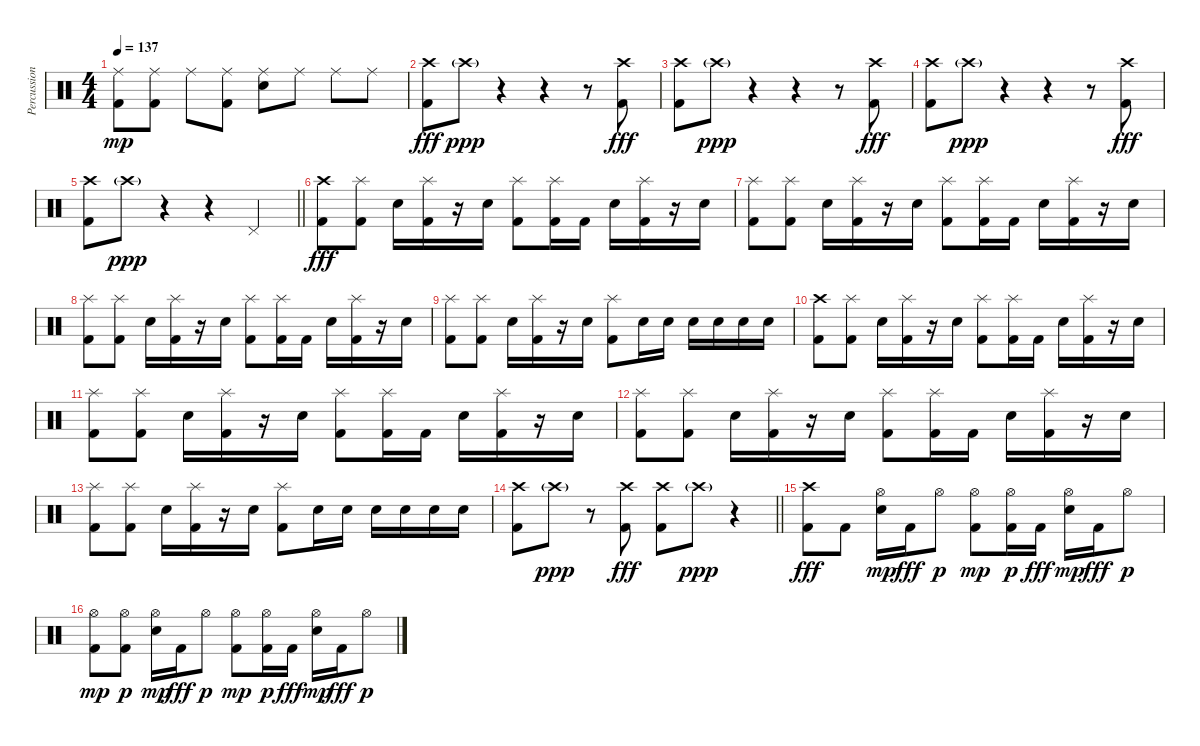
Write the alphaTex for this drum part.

\track ("Percussion" "Percussion") {instrument percussion}
\staff {score}
\articulation defaults
\ts (4 4)
\tempo 137
\clef neutral
\ks c
("Kick (hit) 2" "Ride (middle)").8{dy mp} ("Kick (hit) 2" "Ride (middle)").8 "Ride (middle)".8 ("Kick (hit) 2" "Ride (middle)").8 ("Electric Snare (hit)" "Ride (middle)").8 "Ride (middle)".8 "Ride (middle)".8 "Ride (middle)".8 |
("Kick (hit) 2" "Crash high (hit)").8{dy fff} "Crash high (hit)"{g}.8{dy ppp} r.4 r.4 r.8 ("Kick (hit) 2" "Crash high (hit)").8{dy fff} |
("Kick (hit) 2" "Crash high (hit)").8 "Crash high (hit)"{g}.8{dy ppp} r.4 r.4 r.8 ("Kick (hit) 2" "Crash high (hit)").8{dy fff} |
("Kick (hit) 2" "Crash high (hit)").8 "Crash high (hit)"{g}.8{dy ppp} r.4 r.4 r.8 ("Kick (hit) 2" "Crash high (hit)").8{dy fff} |
\barLineRight lightlight
("Kick (hit) 2" "Crash high (hit)").8 "Crash high (hit)"{g}.8{dy ppp} r.4 r.4 "Pedal Hi-Hat (hit)".4 |
("Kick (hit) 2" "Crash high (hit)").8{dy fff} ("Kick (hit) 2" "Splash (hit)").8 "Electric Snare (hit)".16 ("Kick (hit) 2" "Splash (hit)").16 r.16 "Electric Snare (hit)".16 ("Kick (hit) 2" "Splash (hit)").8 ("Kick (hit) 2" "Splash (hit)").16 "Kick (hit) 2".16 "Electric Snare (hit)".16 ("Kick (hit) 2" "Splash (hit)").16 r.16 "Electric Snare (hit)".16 |
("Kick (hit) 2" "Splash (hit)").8 ("Kick (hit) 2" "Splash (hit)").8 "Electric Snare (hit)".16 ("Kick (hit) 2" "Splash (hit)").16 r.16 "Electric Snare (hit)".16 ("Kick (hit) 2" "Splash (hit)").8 ("Kick (hit) 2" "Splash (hit)").16 "Kick (hit) 2".16 "Electric Snare (hit)".16 ("Kick (hit) 2" "Splash (hit)").16 r.16 "Electric Snare (hit)".16 |
("Kick (hit) 2" "Splash (hit)").8 ("Kick (hit) 2" "Splash (hit)").8 "Electric Snare (hit)".16 ("Kick (hit) 2" "Splash (hit)").16 r.16 "Electric Snare (hit)".16 ("Kick (hit) 2" "Splash (hit)").8 ("Kick (hit) 2" "Splash (hit)").16 "Kick (hit) 2".16 "Electric Snare (hit)".16 ("Kick (hit) 2" "Splash (hit)").16 r.16 "Electric Snare (hit)".16 |
("Kick (hit) 2" "Splash (hit)").8 ("Kick (hit) 2" "Splash (hit)").8 "Electric Snare (hit)".16 ("Kick (hit) 2" "Splash (hit)").16 r.16 "Electric Snare (hit)".16 ("Kick (hit) 2" "Splash (hit)").8 "Electric Snare (hit)".16 "Electric Snare (hit)".16 "Electric Snare (hit)".16 "Electric Snare (hit)".16 "Electric Snare (hit)".16 "Electric Snare (hit)".16 |
("Kick (hit) 2" "Crash high (hit)").8 ("Kick (hit) 2" "Splash (hit)").8 "Electric Snare (hit)".16 ("Kick (hit) 2" "Splash (hit)").16 r.16 "Electric Snare (hit)".16 ("Kick (hit) 2" "Splash (hit)").8 ("Kick (hit) 2" "Splash (hit)").16 "Kick (hit) 2".16 "Electric Snare (hit)".16 ("Kick (hit) 2" "Splash (hit)").16 r.16 "Electric Snare (hit)".16 |
("Kick (hit) 2" "Splash (hit)").8 ("Kick (hit) 2" "Splash (hit)").8 "Electric Snare (hit)".16 ("Kick (hit) 2" "Splash (hit)").16 r.16 "Electric Snare (hit)".16 ("Kick (hit) 2" "Splash (hit)").8 ("Kick (hit) 2" "Splash (hit)").16 "Kick (hit) 2".16 "Electric Snare (hit)".16 ("Kick (hit) 2" "Splash (hit)").16 r.16 "Electric Snare (hit)".16 |
("Kick (hit) 2" "Splash (hit)").8 ("Kick (hit) 2" "Splash (hit)").8 "Electric Snare (hit)".16 ("Kick (hit) 2" "Splash (hit)").16 r.16 "Electric Snare (hit)".16 ("Kick (hit) 2" "Splash (hit)").8 ("Kick (hit) 2" "Splash (hit)").16 "Kick (hit) 2".16 "Electric Snare (hit)".16 ("Kick (hit) 2" "Splash (hit)").16 r.16 "Electric Snare (hit)".16 |
("Kick (hit) 2" "Splash (hit)").8 ("Kick (hit) 2" "Splash (hit)").8 "Electric Snare (hit)".16 ("Kick (hit) 2" "Splash (hit)").16 r.16 "Electric Snare (hit)".16 ("Kick (hit) 2" "Splash (hit)").8 "Electric Snare (hit)".16 "Electric Snare (hit)".16 "Electric Snare (hit)".16 "Electric Snare (hit)".16 "Electric Snare (hit)".16 "Electric Snare (hit)".16 |
\barLineRight lightlight
("Kick (hit) 2" "Crash high (hit)").8 "Crash high (hit)"{g}.8{dy ppp} r.8 ("Kick (hit) 2" "Crash high (hit)").8{dy fff} ("Kick (hit) 2" "Crash high (hit)").8 "Crash high (hit)"{g}.8{dy ppp} r.4 |
("Kick (hit) 2" "Crash high (hit)").8{dy fff} "Kick (hit) 2".8 ("Electric Snare (hit)" "Hi-Hat (open)").16{dy mp} "Kick (hit) 2".16{dy fff} "Hi-Hat (open)".8{dy p} ("Kick (hit) 2" "Hi-Hat (open)").8{dy mp} ("Kick (hit) 2" "Hi-Hat (open)").16{dy p} "Kick (hit) 2".16{dy fff} ("Electric Snare (hit)" "Hi-Hat (open)").16{dy mp} "Kick (hit) 2".16{dy fff} "Hi-Hat (open)".8{dy p} |
("Kick (hit) 2" "Hi-Hat (open)").8{dy mp} ("Kick (hit) 2" "Hi-Hat (open)").8{dy p} ("Electric Snare (hit)" "Hi-Hat (open)").16{dy mp} "Kick (hit) 2".16{dy fff} "Hi-Hat (open)".8{dy p} ("Kick (hit) 2" "Hi-Hat (open)").8{dy mp} ("Kick (hit) 2" "Hi-Hat (open)").16{dy p} "Kick (hit) 2".16{dy fff} ("Electric Snare (hit)" "Hi-Hat (open)").16{dy mp} "Kick (hit) 2".16{dy fff} "Hi-Hat (open)".8{dy p}
